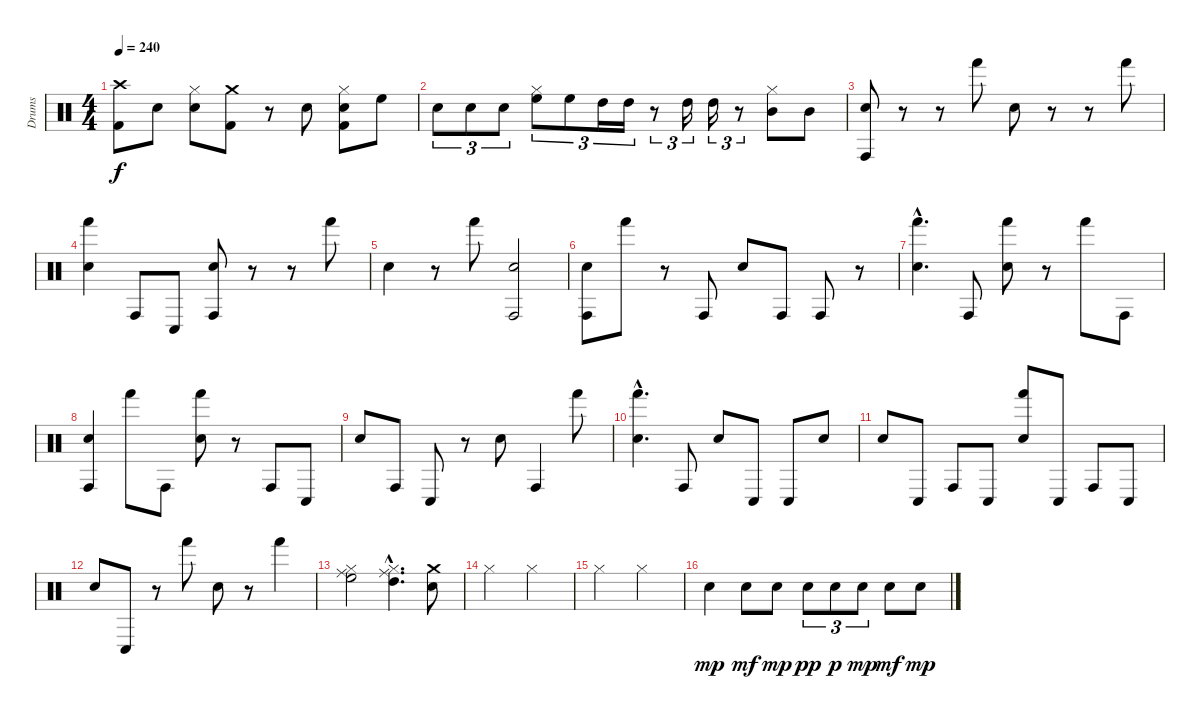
\track ("Drums" "Drums") {instrument percussion}
\staff {score}
\articulation defaults
\ts (4 4)
\tempo 240
\clef neutral
\ks c
("Crash high (hit)" "Kick (hit) 2").8{dy f} "Snare (hit) 2".8 ("Hi-Hat (closed)" "Snare (hit) 2").8 ("Crash medium (hit)" "Kick (hit) 2").8 r.8 "Snare (hit) 2".8 ("Hi-Hat (closed)" "Snare (hit) 2" "Kick (hit) 2").8 "High Floor Tom (hit)".8 |
"Snare (hit) 2".8{tu (3 2)} "Snare (hit) 2".8{tu (3 2)} "Snare (hit) 2".8{tu (3 2)} ("Hi-Hat (closed)" "High Floor Tom (hit)").8{tu (3 2)} "High Floor Tom (hit)".8{tu (3 2)} "High Tom (hit)".16{tu (3 2)} "High Tom (hit)".16{tu (3 2)} r.8{tu (3 2)} "High Tom (hit)".16{tu (3 2)} "High Tom (hit)".16{tu (3 2)} r.8{tu (3 2)} ("Hi-Hat (closed)" "Mid Tom (hit)").8 "Mid Tom (hit)".8 |
("Hand Clap (hit)" "Conga high (hit)").8 r.8 r.8 "Hand (hit)".8 "Hand Clap (hit)".8 r.8 r.8 "Hand (hit)".8 |
("Hand Clap (hit)" "Hand (hit)").4 "Conga high (hit)".8 "Conga low (hit)".8 ("Hand Clap (hit)" "Conga high (hit)").8 r.8 r.8 "Hand (hit)".8 |
"Hand Clap (hit)".4 r.8 "Hand (hit)".8 ("Hand Clap (hit)" "Conga high (hit)").2 |
("Hand Clap (hit)" "Conga high (hit)").8 "Hand (hit)".8 r.8 "Conga high (hit)".8 "Hand Clap (hit)".8 "Conga high (hit)".8 "Conga high (hit)".8 r.8 |
("Hand Clap (hit)"{hac} "Hand (hit)"{hac}).4{d} "Conga high (hit)".8 ("Hand Clap (hit)" "Hand (hit)").8 r.8 "Hand (hit)".8 "Conga high (hit)".8 |
("Hand Clap (hit)" "Conga high (hit)").4 "Hand (hit)".8 "Conga high (hit)".8 ("Hand Clap (hit)" "Hand (hit)").8 r.8 "Conga high (hit)".8 "Conga low (hit)".8 |
"Hand Clap (hit)".8 "Conga high (hit)".8 "Conga low (hit)".8 r.8 "Hand Clap (hit)".8 "Conga high (hit)".4 "Hand (hit)".8 |
("Hand Clap (hit)"{hac} "Hand (hit)"{hac}).4{d} "Conga high (hit)".8 "Hand Clap (hit)".8 "Conga low (hit)".8 "Conga low (hit)".8 "Hand Clap (hit)".8 |
"Hand Clap (hit)".8 "Conga low (hit)".8 "Conga high (hit)".8 "Conga low (hit)".8 ("Hand Clap (hit)" "Hand (hit)").8 "Conga low (hit)".8 "Conga high (hit)".8 "Conga low (hit)".8 |
"Hand Clap (hit)".8 "Conga low (hit)".8 r.8 "Hand (hit)".8 "Hand Clap (hit)".8 r.8 "Hand (hit)".4 |
("Ride (middle)" "Hi-Hat (closed)" "High Floor Tom (hit)").2 ("Ride (middle)"{hac} "Hi-Hat (closed)"{hac} "High Tom (hit)"{hac}).4{d} ("Crash medium (hit)" "Electric Snare (hit)").8 |
"Hi-Hat (closed)".2 "Hi-Hat (closed)".2 |
"Hi-Hat (closed)".2 "Hi-Hat (closed)".2 |
"Electric Snare (hit)".4{dy mp} "Electric Snare (hit)".8{dy mf} "Electric Snare (hit)".8{dy mp} "Electric Snare (hit)".8{tu (3 2) dy pp} "Electric Snare (hit)".8{tu (3 2) dy p} "Electric Snare (hit)".8{tu (3 2) dy mp} "Electric Snare (hit)".8{dy mf} "Electric Snare (hit)".8{dy mp}
